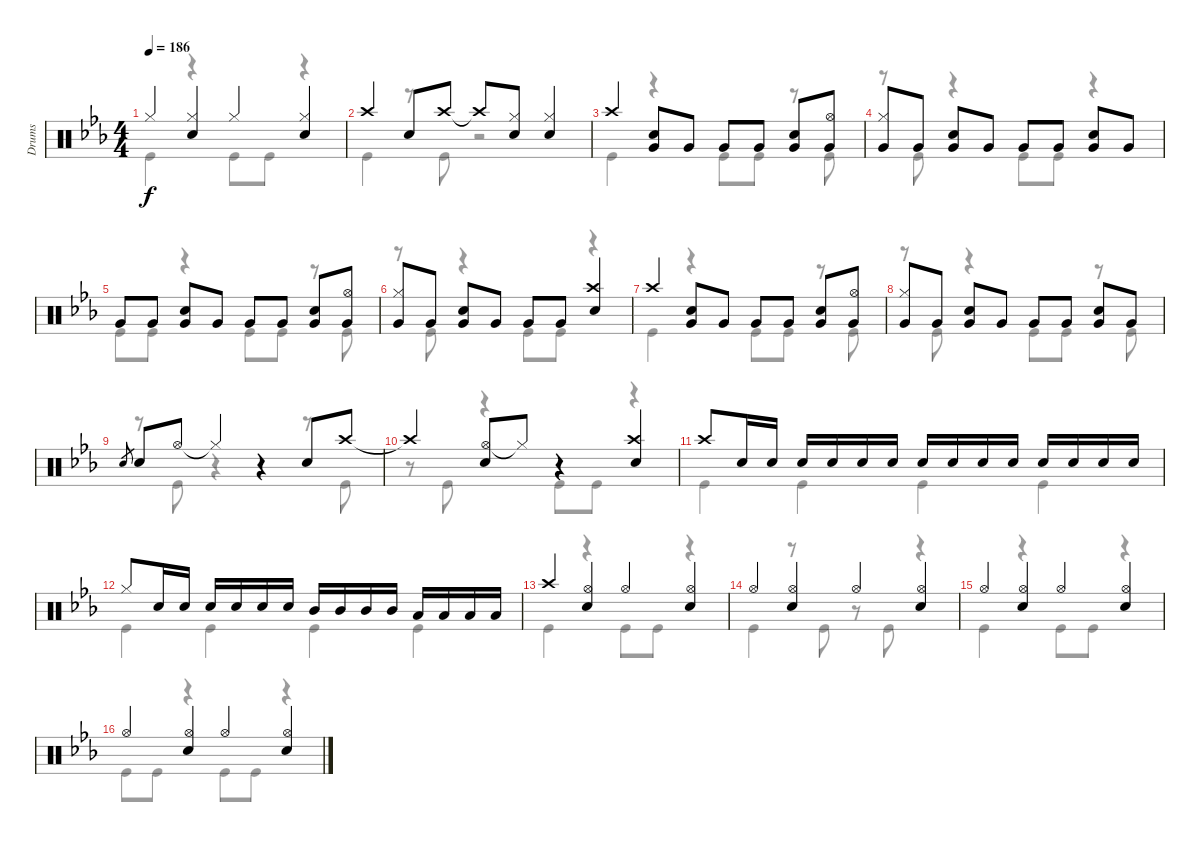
\track ("Drums" "Drums") {instrument percussion}
\staff {score}
\articulation defaults
\voice
\ts (4 4)
\tempo 186
\clef neutral
\ks eb "Hi-Hat (closed)".4{dy f beam Up}
("Hi-Hat (closed)" "Snare (hit) 2").4{beam Up} "Hi-Hat (closed)".4{beam Up} ("Hi-Hat (closed)" "Snare (hit) 2").4{beam Up} |
"Crash high (hit)".4{beam Up} "Snare (hit) 2".8{beam Up} "Crash high (hit)".8{beam Up} "Crash high (hit)"{t}.8{beam Up} ("Snare (hit) 2" "Hi-Hat (closed)").8{beam Up} ("Snare (hit) 2" "Hi-Hat (closed)").4{beam Up} |
"Crash high (hit)".4{beam Up} ("Snare (hit) 2" "Very Low Tom (hit)").8{beam Up} "Very Low Tom (hit)".8{beam Up} "Very Low Tom (hit)".8{beam Up} "Very Low Tom (hit)".8{beam Up} ("Very Low Tom (hit)" "Snare (hit) 2").8{beam Up} ("Very Low Tom (hit)" "Hi-Hat (open)").8{beam Up} |
("Hi-Hat (closed)" "Very Low Tom (hit)").8{beam Up} "Very Low Tom (hit)".8{beam Up} ("Very Low Tom (hit)" "Snare (hit) 2").8{beam Up} "Very Low Tom (hit)".8{beam Up} "Very Low Tom (hit)".8{beam Up} "Very Low Tom (hit)".8{beam Up} ("Very Low Tom (hit)" "Snare (hit) 2").8{beam Up} "Very Low Tom (hit)".8{beam Up} |
"Very Low Tom (hit)".8{beam Up} "Very Low Tom (hit)".8{beam Up} ("Very Low Tom (hit)" "Snare (hit) 2").8{beam Up} "Very Low Tom (hit)".8{beam Up} "Very Low Tom (hit)".8{beam Up} "Very Low Tom (hit)".8{beam Up} ("Very Low Tom (hit)" "Snare (hit) 2").8{beam Up} ("Hi-Hat (open)" "Very Low Tom (hit)").8{beam Up} |
("Hi-Hat (closed)" "Very Low Tom (hit)").8{beam Up} "Very Low Tom (hit)".8{beam Up} ("Very Low Tom (hit)" "Snare (hit) 2").8{beam Up} "Very Low Tom (hit)".8{beam Up} "Very Low Tom (hit)".8{beam Up} "Very Low Tom (hit)".8{beam Up} ("Snare (hit) 2" "Crash high (hit)").4{beam Up} |
"Crash high (hit)".4{beam Up} ("Snare (hit) 2" "Very Low Tom (hit)").8{beam Up} "Very Low Tom (hit)".8{beam Up} "Very Low Tom (hit)".8{beam Up} "Very Low Tom (hit)".8{beam Up} ("Very Low Tom (hit)" "Snare (hit) 2").8{beam Up} ("Hi-Hat (open)" "Very Low Tom (hit)").8{beam Up} |
("Hi-Hat (closed)" "Very Low Tom (hit)").8{beam Up} "Very Low Tom (hit)".8{beam Up} ("Very Low Tom (hit)" "Snare (hit) 2").8{beam Up} "Very Low Tom (hit)".8{beam Up} "Very Low Tom (hit)".8{beam Up} "Very Low Tom (hit)".8{beam Up} ("Very Low Tom (hit)" "Snare (hit) 2").8{beam Up} "Very Low Tom (hit)".8{beam Up} |
"Snare (hit) 2".8{gr} "Snare (hit) 2".8{beam Up} "Hi-Hat (open)".8{beam Up} "Hi-Hat (closed)"{t}.4{beam Up} r.4 "Snare (hit) 2".8{beam Up} "Crash high (hit)".8{beam Up} |
"Crash high (hit)"{t}.4{beam Up} ("Hi-Hat (open)" "Snare (hit) 2").8{beam Up} "Hi-Hat (closed)"{t}.8{beam Up} r.4 ("Crash high (hit)" "Snare (hit) 2").4{beam Up} |
"Crash high (hit)".8{beam Up} "Snare (hit) 2".16{beam Up} "Snare (hit) 2".16{beam Up} "Snare (hit) 2".16{beam Up} "Snare (hit) 2".16{beam Up} "Snare (hit) 2".16{beam Up} "Snare (hit) 2".16{beam Up} "Snare (hit) 2".16{beam Up} "Snare (hit) 2".16{beam Up} "Snare (hit) 2".16{beam Up} "Snare (hit) 2".16{beam Up} "Snare (hit) 2".16{beam Up} "Snare (hit) 2".16{beam Up} "Snare (hit) 2".16{beam Up} "Snare (hit) 2".16{beam Up} |
"Hi-Hat (closed)".8{beam Up} "Snare (hit) 2".16{beam Up} "Snare (hit) 2".16{beam Up} "Snare (hit) 2".16{beam Up} "Snare (hit) 2".16{beam Up} "Snare (hit) 2".16{beam Up} "Snare (hit) 2".16{beam Up} "Mid Tom (hit)".16{beam Up} "Mid Tom (hit)".16{beam Up} "Mid Tom (hit)".16{beam Up} "Mid Tom (hit)".16{beam Up} "Low Tom (hit)".16{beam Up} "Low Tom (hit)".16{beam Up} "Low Tom (hit)".16{beam Up} "Low Tom (hit)".16{beam Up} |
"Crash high (hit)".4{beam Up} ("Hi-Hat (open)" "Snare (hit) 2").4{beam Up} "Hi-Hat (open)".4{beam Up} ("Hi-Hat (open)" "Snare (hit) 2").4{beam Up} |
"Hi-Hat (open)".4{beam Up} ("Snare (hit) 2" "Hi-Hat (open)").4{beam Up} "Hi-Hat (open)".4{beam Up} ("Hi-Hat (open)" "Snare (hit) 2").4{beam Up} |
"Hi-Hat (open)".4{beam Up} ("Snare (hit) 2" "Hi-Hat (open)").4{beam Up} "Hi-Hat (open)".4{beam Up} ("Hi-Hat (open)" "Snare (hit) 2").4{beam Up} |
"Hi-Hat (open)".4{beam Up} ("Snare (hit) 2" "Hi-Hat (open)").4{beam Up} "Hi-Hat (open)".4{beam Up} ("Hi-Hat (open)" "Snare (hit) 2").4{beam Up}
\voice
\clef neutral
\ottava regular
\simile none
\ks eb "Kick (hit)".4{dy f}
r.4 "Kick (hit)".8 "Kick (hit)".8 r.4 |
"Kick (hit)".4 r.8 "Kick (hit)".8 r.2 |
"Kick (hit)".4 r.4 "Kick (hit)".8 "Kick (hit)".8 r.8 "Kick (hit)".8 |
r.8 "Kick (hit)".8 r.4 "Kick (hit)".8 "Kick (hit)".8 r.4 |
"Kick (hit)".8 "Kick (hit)".8 r.4 "Kick (hit)".8 "Kick (hit)".8 r.8 "Kick (hit)".8 |
r.8 "Kick (hit)".8 r.4 "Kick (hit)".8 "Kick (hit)".8 r.4 |
"Kick (hit)".4 r.4 "Kick (hit)".8 "Kick (hit)".8 r.8 "Kick (hit)".8 |
r.8 "Kick (hit)".8 r.4 "Kick (hit)".8 "Kick (hit)".8 r.8 "Kick (hit)".8 |
r.8 "Kick (hit)".8 r.4 r.4 r.8 "Kick (hit)".8 |
r.8 "Kick (hit)".8 r.4 "Kick (hit)".8 "Kick (hit)".8 r.4 |
"Kick (hit)".4 "Kick (hit)".4 "Kick (hit)".4 "Kick (hit)".4 |
"Kick (hit)".4 "Kick (hit)".4 "Kick (hit)".4 "Kick (hit)".4 |
"Kick (hit)".4 r.4 "Kick (hit)".8 "Kick (hit)".8 r.4 |
"Kick (hit)".4 r.8 "Kick (hit)".8 r.8 "Kick (hit)".8 r.4 |
"Kick (hit)".4 r.4 "Kick (hit)".8 "Kick (hit)".8 r.4 |
"Kick (hit)".8 "Kick (hit)".8 r.4 "Kick (hit)".8 "Kick (hit)".8 r.4
